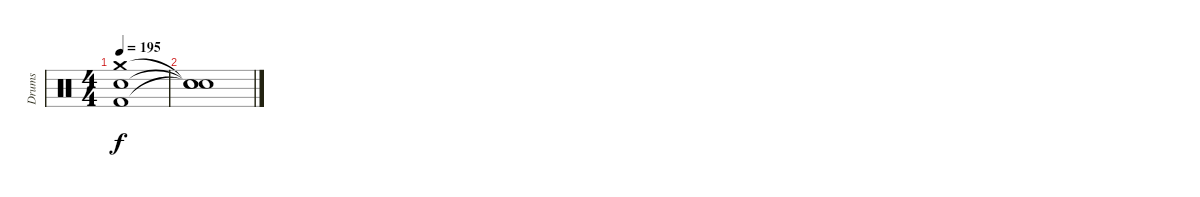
\track ("Drums" "Drums") {instrument percussion}
\staff {score}
\articulation defaults
\ts (4 4)
\tempo 195
\clef neutral
\ks c
("Crash medium (hit)" "Kick (hit) 2" "Snare (hit) 2").1{dy f} |
("Snare (hit)"{t} "Snare (hit)"{t} "Snare (hit)"{t}).1
